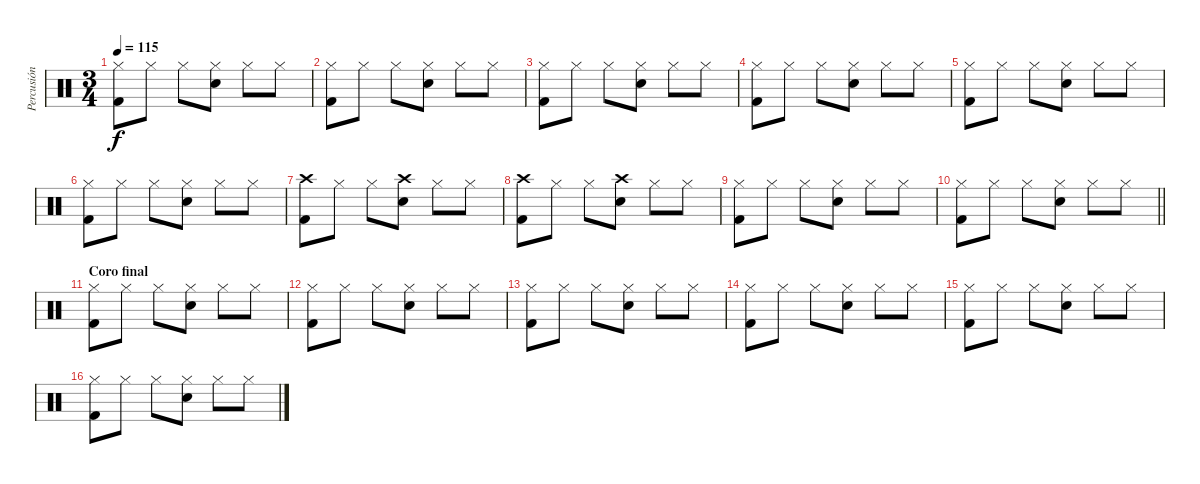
\track ("Percusión" "Percusión") {instrument percussion}
\staff {score}
\articulation defaults
\ts (3 4)
\tempo 115
\clef neutral
\ks c
("Hi-Hat (closed)" "Kick (hit) 2").8{dy f} "Hi-Hat (closed)".8 "Hi-Hat (closed)".8 ("Hi-Hat (closed)" "Electric Snare (hit)").8 "Hi-Hat (closed)".8 "Hi-Hat (closed)".8 |
("Hi-Hat (closed)" "Kick (hit) 2").8 "Hi-Hat (closed)".8 "Hi-Hat (closed)".8 ("Hi-Hat (closed)" "Electric Snare (hit)").8 "Hi-Hat (closed)".8 "Hi-Hat (closed)".8 |
("Hi-Hat (closed)" "Kick (hit) 2").8 "Hi-Hat (closed)".8 "Hi-Hat (closed)".8 ("Hi-Hat (closed)" "Electric Snare (hit)").8 "Hi-Hat (closed)".8 "Hi-Hat (closed)".8 |
("Hi-Hat (closed)" "Kick (hit) 2").8 "Hi-Hat (closed)".8 "Hi-Hat (closed)".8 ("Hi-Hat (closed)" "Electric Snare (hit)").8 "Hi-Hat (closed)".8 "Hi-Hat (closed)".8 |
("Hi-Hat (closed)" "Kick (hit) 2").8 "Hi-Hat (closed)".8 "Hi-Hat (closed)".8 ("Hi-Hat (closed)" "Electric Snare (hit)").8 "Hi-Hat (closed)".8 "Hi-Hat (closed)".8 |
("Hi-Hat (closed)" "Kick (hit) 2").8 "Hi-Hat (closed)".8 "Hi-Hat (closed)".8 ("Hi-Hat (closed)" "Electric Snare (hit)").8 "Hi-Hat (closed)".8 "Hi-Hat (closed)".8 |
("Crash high (hit)" "Kick (hit) 2").8 "Hi-Hat (closed)".8 "Hi-Hat (closed)".8 ("Crash high (hit)" "Electric Snare (hit)").8 "Hi-Hat (closed)".8 "Hi-Hat (closed)".8 |
("Crash high (hit)" "Kick (hit) 2").8 "Hi-Hat (closed)".8 "Hi-Hat (closed)".8 ("Crash high (hit)" "Electric Snare (hit)").8 "Hi-Hat (closed)".8 "Hi-Hat (closed)".8 |
("Hi-Hat (closed)" "Kick (hit) 2").8 "Hi-Hat (closed)".8 "Hi-Hat (closed)".8 ("Hi-Hat (closed)" "Electric Snare (hit)").8 "Hi-Hat (closed)".8 "Hi-Hat (closed)".8 |
\barLineRight lightlight
("Hi-Hat (closed)" "Kick (hit) 2").8 "Hi-Hat (closed)".8 "Hi-Hat (closed)".8 ("Hi-Hat (closed)" "Electric Snare (hit)").8 "Hi-Hat (closed)".8 "Hi-Hat (closed)".8 |
\section ("" "Coro final")
("Hi-Hat (closed)" "Kick (hit) 2").8 "Hi-Hat (closed)".8 "Hi-Hat (closed)".8 ("Hi-Hat (closed)" "Electric Snare (hit)").8 "Hi-Hat (closed)".8 "Hi-Hat (closed)".8 |
("Hi-Hat (closed)" "Kick (hit) 2").8 "Hi-Hat (closed)".8 "Hi-Hat (closed)".8 ("Hi-Hat (closed)" "Electric Snare (hit)").8 "Hi-Hat (closed)".8 "Hi-Hat (closed)".8 |
("Hi-Hat (closed)" "Kick (hit) 2").8 "Hi-Hat (closed)".8 "Hi-Hat (closed)".8 ("Hi-Hat (closed)" "Electric Snare (hit)").8 "Hi-Hat (closed)".8 "Hi-Hat (closed)".8 |
("Hi-Hat (closed)" "Kick (hit) 2").8 "Hi-Hat (closed)".8 "Hi-Hat (closed)".8 ("Hi-Hat (closed)" "Electric Snare (hit)").8 "Hi-Hat (closed)".8 "Hi-Hat (closed)".8 |
("Hi-Hat (closed)" "Kick (hit) 2").8 "Hi-Hat (closed)".8 "Hi-Hat (closed)".8 ("Hi-Hat (closed)" "Electric Snare (hit)").8 "Hi-Hat (closed)".8 "Hi-Hat (closed)".8 |
("Hi-Hat (closed)" "Kick (hit) 2").8 "Hi-Hat (closed)".8 "Hi-Hat (closed)".8 ("Hi-Hat (closed)" "Electric Snare (hit)").8 "Hi-Hat (closed)".8 "Hi-Hat (closed)".8
